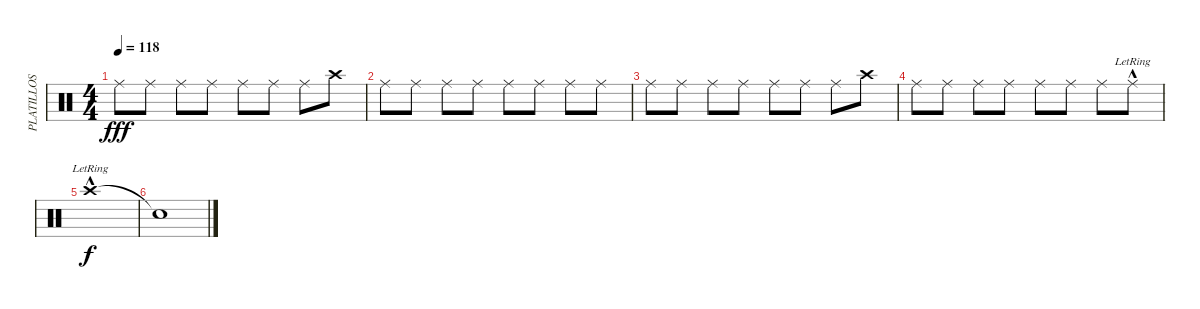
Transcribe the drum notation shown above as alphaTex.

\track ("PLATILLOS" "PLATILLOS") {instrument percussion}
\staff {score}
\articulation defaults
\ts (4 4)
\tempo 118
\clef neutral
\ks c "Ride (middle)".8{dy fff} "Ride (middle)".8 "Ride (middle)".8 "Ride (middle)".8 "Ride (middle)".8 "Ride (middle)".8 "Ride (middle)".8 "Crash high (hit)".8
|
"Ride (middle)".8 "Ride (middle)".8 "Ride (middle)".8 "Ride (middle)".8 "Ride (middle)".8 "Ride (middle)".8 "Ride (middle)".8 "Ride (middle)".8 |
"Ride (middle)".8 "Ride (middle)".8 "Ride (middle)".8 "Ride (middle)".8 "Ride (middle)".8 "Ride (middle)".8 "Ride (middle)".8 "Crash high (hit)".8 |
"Ride (middle)".8 "Ride (middle)".8 "Ride (middle)".8 "Ride (middle)".8 "Ride (middle)".8 "Ride (middle)".8 "Ride (middle)".8 "Ride (middle)"{hac lr}.8 |
"Crash high (hit)"{hac lr}.1{dy f} |
"Snare (hit)"{t}.1
